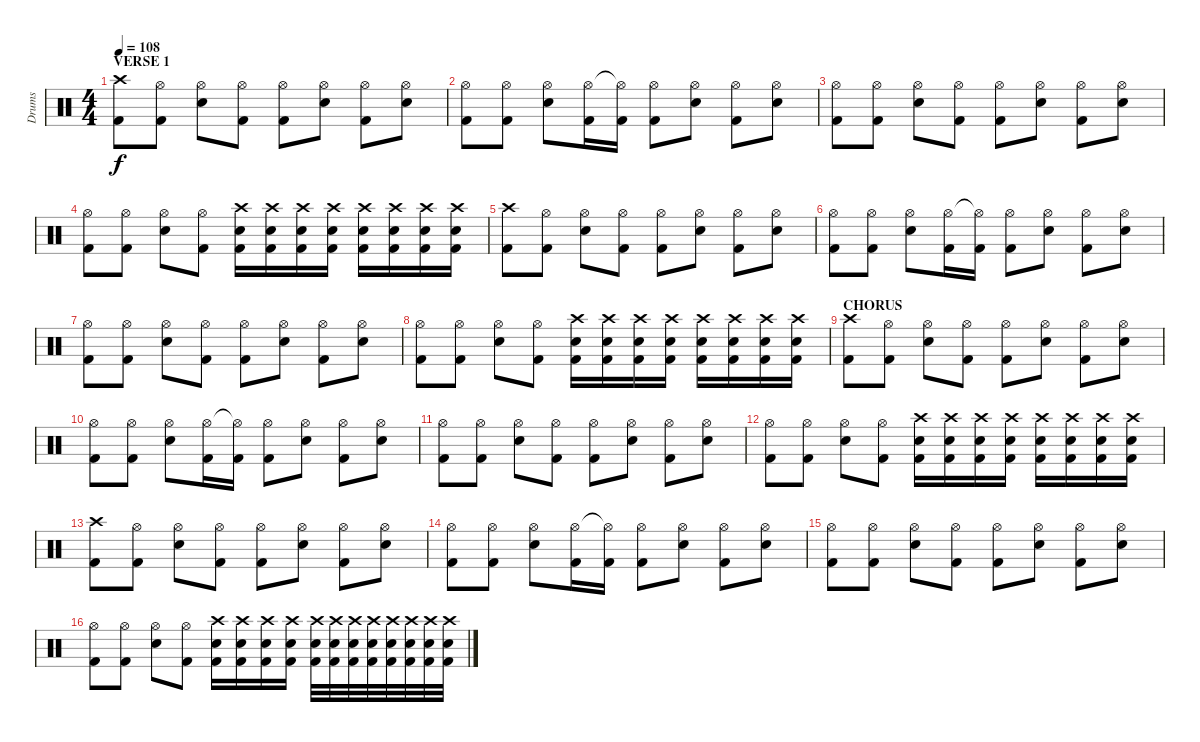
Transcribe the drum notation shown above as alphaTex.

\track ("Drums" "Drums") {instrument percussion}
\staff {score}
\articulation defaults
\ts (4 4)
\section ("" "VERSE 1")
\tempo 108
\clef neutral
\ks c
("Crash high (hit)" "Kick (hit) 2").8{dy f} ("Hi-Hat (open)" "Kick (hit) 2").8 ("Hi-Hat (open)" "Electric Snare (hit)").8 ("Hi-Hat (open)" "Kick (hit) 2").8 ("Hi-Hat (open)" "Kick (hit) 2").8 ("Hi-Hat (open)" "Electric Snare (hit)").8 ("Hi-Hat (open)" "Kick (hit) 2").8 ("Hi-Hat (open)" "Electric Snare (hit)").8 |
("Hi-Hat (open)" "Kick (hit) 2").8 ("Hi-Hat (open)" "Kick (hit) 2").8 ("Hi-Hat (open)" "Electric Snare (hit)").8 ("Hi-Hat (open)" "Kick (hit) 2").16 ("Hi-Hat (open)"{t} "Kick (hit) 2").16 ("Hi-Hat (open)" "Kick (hit) 2").8 ("Hi-Hat (open)" "Electric Snare (hit)").8 ("Hi-Hat (open)" "Kick (hit) 2").8 ("Hi-Hat (open)" "Electric Snare (hit)").8 |
("Hi-Hat (open)" "Kick (hit) 2").8 ("Hi-Hat (open)" "Kick (hit) 2").8 ("Hi-Hat (open)" "Electric Snare (hit)").8 ("Hi-Hat (open)" "Kick (hit) 2").8 ("Hi-Hat (open)" "Kick (hit) 2").8 ("Hi-Hat (open)" "Electric Snare (hit)").8 ("Hi-Hat (open)" "Kick (hit) 2").8 ("Hi-Hat (open)" "Electric Snare (hit)").8 |
("Hi-Hat (open)" "Kick (hit) 2").8 ("Hi-Hat (open)" "Kick (hit) 2").8 ("Hi-Hat (open)" "Electric Snare (hit)").8 ("Hi-Hat (open)" "Kick (hit) 2").8 ("Crash high (hit)" "Kick (hit) 2" "Electric Snare (hit)").16 ("Crash high (hit)" "Kick (hit) 2" "Electric Snare (hit)").16 ("Crash high (hit)" "Kick (hit) 2" "Electric Snare (hit)").16 ("Crash high (hit)" "Kick (hit) 2" "Electric Snare (hit)").16 ("Crash high (hit)" "Kick (hit) 2" "Electric Snare (hit)").16 ("Crash high (hit)" "Kick (hit) 2" "Electric Snare (hit)").16 ("Crash high (hit)" "Kick (hit) 2" "Electric Snare (hit)").16 ("Crash high (hit)" "Kick (hit) 2" "Electric Snare (hit)").16 |
("Crash high (hit)" "Kick (hit) 2").8 ("Hi-Hat (open)" "Kick (hit) 2").8 ("Hi-Hat (open)" "Electric Snare (hit)").8 ("Hi-Hat (open)" "Kick (hit) 2").8 ("Hi-Hat (open)" "Kick (hit) 2").8 ("Hi-Hat (open)" "Electric Snare (hit)").8 ("Hi-Hat (open)" "Kick (hit) 2").8 ("Hi-Hat (open)" "Electric Snare (hit)").8 |
("Hi-Hat (open)" "Kick (hit) 2").8 ("Hi-Hat (open)" "Kick (hit) 2").8 ("Hi-Hat (open)" "Electric Snare (hit)").8 ("Hi-Hat (open)" "Kick (hit) 2").16 ("Hi-Hat (open)"{t} "Kick (hit) 2").16 ("Hi-Hat (open)" "Kick (hit) 2").8 ("Hi-Hat (open)" "Electric Snare (hit)").8 ("Hi-Hat (open)" "Kick (hit) 2").8 ("Hi-Hat (open)" "Electric Snare (hit)").8 |
("Hi-Hat (open)" "Kick (hit) 2").8 ("Hi-Hat (open)" "Kick (hit) 2").8 ("Hi-Hat (open)" "Electric Snare (hit)").8 ("Hi-Hat (open)" "Kick (hit) 2").8 ("Hi-Hat (open)" "Kick (hit) 2").8 ("Hi-Hat (open)" "Electric Snare (hit)").8 ("Hi-Hat (open)" "Kick (hit) 2").8 ("Hi-Hat (open)" "Electric Snare (hit)").8 |
("Hi-Hat (open)" "Kick (hit) 2").8 ("Hi-Hat (open)" "Kick (hit) 2").8 ("Hi-Hat (open)" "Electric Snare (hit)").8 ("Hi-Hat (open)" "Kick (hit) 2").8 ("Crash high (hit)" "Kick (hit) 2" "Electric Snare (hit)").16 ("Crash high (hit)" "Kick (hit) 2" "Electric Snare (hit)").16 ("Crash high (hit)" "Kick (hit) 2" "Electric Snare (hit)").16 ("Crash high (hit)" "Kick (hit) 2" "Electric Snare (hit)").16 ("Crash high (hit)" "Kick (hit) 2" "Electric Snare (hit)").16 ("Crash high (hit)" "Kick (hit) 2" "Electric Snare (hit)").16 ("Crash high (hit)" "Kick (hit) 2" "Electric Snare (hit)").16 ("Crash high (hit)" "Kick (hit) 2" "Electric Snare (hit)").16 |
\section ("" "CHORUS")
("Crash high (hit)" "Kick (hit) 2").8 ("Hi-Hat (open)" "Kick (hit) 2").8 ("Hi-Hat (open)" "Electric Snare (hit)").8 ("Hi-Hat (open)" "Kick (hit) 2").8 ("Hi-Hat (open)" "Kick (hit) 2").8 ("Hi-Hat (open)" "Electric Snare (hit)").8 ("Hi-Hat (open)" "Kick (hit) 2").8 ("Hi-Hat (open)" "Electric Snare (hit)").8 |
("Hi-Hat (open)" "Kick (hit) 2").8 ("Hi-Hat (open)" "Kick (hit) 2").8 ("Hi-Hat (open)" "Electric Snare (hit)").8 ("Hi-Hat (open)" "Kick (hit) 2").16 ("Hi-Hat (open)"{t} "Kick (hit) 2").16 ("Hi-Hat (open)" "Kick (hit) 2").8 ("Hi-Hat (open)" "Electric Snare (hit)").8 ("Hi-Hat (open)" "Kick (hit) 2").8 ("Hi-Hat (open)" "Electric Snare (hit)").8 |
("Hi-Hat (open)" "Kick (hit) 2").8 ("Hi-Hat (open)" "Kick (hit) 2").8 ("Hi-Hat (open)" "Electric Snare (hit)").8 ("Hi-Hat (open)" "Kick (hit) 2").8 ("Hi-Hat (open)" "Kick (hit) 2").8 ("Hi-Hat (open)" "Electric Snare (hit)").8 ("Hi-Hat (open)" "Kick (hit) 2").8 ("Hi-Hat (open)" "Electric Snare (hit)").8 |
("Hi-Hat (open)" "Kick (hit) 2").8 ("Hi-Hat (open)" "Kick (hit) 2").8 ("Hi-Hat (open)" "Electric Snare (hit)").8 ("Hi-Hat (open)" "Kick (hit) 2").8 ("Crash high (hit)" "Kick (hit) 2" "Electric Snare (hit)").16 ("Crash high (hit)" "Kick (hit) 2" "Electric Snare (hit)").16 ("Crash high (hit)" "Kick (hit) 2" "Electric Snare (hit)").16 ("Crash high (hit)" "Kick (hit) 2" "Electric Snare (hit)").16 ("Crash high (hit)" "Kick (hit) 2" "Electric Snare (hit)").16 ("Crash high (hit)" "Kick (hit) 2" "Electric Snare (hit)").16 ("Crash high (hit)" "Kick (hit) 2" "Electric Snare (hit)").16 ("Crash high (hit)" "Kick (hit) 2" "Electric Snare (hit)").16 |
("Crash high (hit)" "Kick (hit) 2").8 ("Hi-Hat (open)" "Kick (hit) 2").8 ("Hi-Hat (open)" "Electric Snare (hit)").8 ("Hi-Hat (open)" "Kick (hit) 2").8 ("Hi-Hat (open)" "Kick (hit) 2").8 ("Hi-Hat (open)" "Electric Snare (hit)").8 ("Hi-Hat (open)" "Kick (hit) 2").8 ("Hi-Hat (open)" "Electric Snare (hit)").8 |
("Hi-Hat (open)" "Kick (hit) 2").8 ("Hi-Hat (open)" "Kick (hit) 2").8 ("Hi-Hat (open)" "Electric Snare (hit)").8 ("Hi-Hat (open)" "Kick (hit) 2").16 ("Hi-Hat (open)"{t} "Kick (hit) 2").16 ("Hi-Hat (open)" "Kick (hit) 2").8 ("Hi-Hat (open)" "Electric Snare (hit)").8 ("Hi-Hat (open)" "Kick (hit) 2").8 ("Hi-Hat (open)" "Electric Snare (hit)").8 |
("Hi-Hat (open)" "Kick (hit) 2").8 ("Hi-Hat (open)" "Kick (hit) 2").8 ("Hi-Hat (open)" "Electric Snare (hit)").8 ("Hi-Hat (open)" "Kick (hit) 2").8 ("Hi-Hat (open)" "Kick (hit) 2").8 ("Hi-Hat (open)" "Electric Snare (hit)").8 ("Hi-Hat (open)" "Kick (hit) 2").8 ("Hi-Hat (open)" "Electric Snare (hit)").8 |
("Hi-Hat (open)" "Kick (hit) 2").8 ("Hi-Hat (open)" "Kick (hit) 2").8 ("Hi-Hat (open)" "Electric Snare (hit)").8 ("Hi-Hat (open)" "Kick (hit) 2").8 ("Crash high (hit)" "Kick (hit) 2" "Electric Snare (hit)").16 ("Crash high (hit)" "Kick (hit) 2" "Electric Snare (hit)").16 ("Crash high (hit)" "Kick (hit) 2" "Electric Snare (hit)").16 ("Crash high (hit)" "Kick (hit) 2" "Electric Snare (hit)").16 ("Crash high (hit)" "Kick (hit) 2" "Electric Snare (hit)").32 ("Crash high (hit)" "Kick (hit) 2" "Electric Snare (hit)").32 ("Crash high (hit)" "Kick (hit) 2" "Electric Snare (hit)").32 ("Crash high (hit)" "Kick (hit) 2" "Electric Snare (hit)").32 ("Crash high (hit)" "Kick (hit) 2" "Electric Snare (hit)").32 ("Crash high (hit)" "Kick (hit) 2" "Electric Snare (hit)").32 ("Crash high (hit)" "Kick (hit) 2" "Electric Snare (hit)").32 ("Crash high (hit)" "Kick (hit) 2" "Electric Snare (hit)").32
